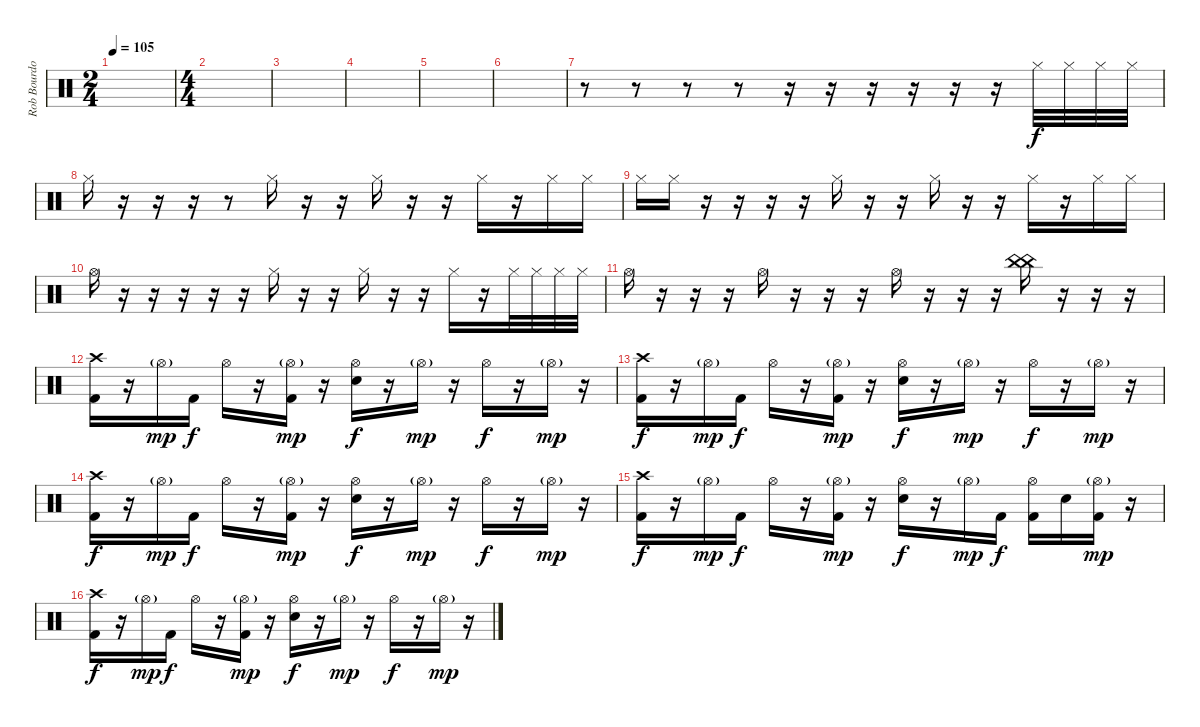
\track ("Rob Bourdon (Drums)" "Rob Bourdo") {instrument percussion}
\staff {score}
\articulation defaults
\ts (2 4)
\tempo 105
\clef neutral
\ks c
|
\ts (4 4)
|
|
|
|
|
r.8 r.8 r.8 r.8 r.16 r.16 r.16 r.16 r.16 r.16 "Hi-Hat (closed)".32 "Hi-Hat (closed)".32 "Hi-Hat (closed)".32 "Hi-Hat (closed)".32 |
"Hi-Hat (closed)".16 r.16 r.16 r.16 r.8 "Hi-Hat (closed)".16 r.16 r.16 "Hi-Hat (closed)".16 r.16 r.16 "Hi-Hat (closed)".16 r.16 "Hi-Hat (closed)".16 "Hi-Hat (closed)".16 |
"Hi-Hat (closed)".16 "Hi-Hat (closed)".16 r.16 r.16 r.16 r.16 "Hi-Hat (closed)".16 r.16 r.16 "Hi-Hat (closed)".16 r.16 r.16 "Hi-Hat (closed)".16 r.16 "Hi-Hat (closed)".16 "Hi-Hat (closed)".16 |
"Hi-Hat (open)".16 r.16 r.16 r.16 r.16 r.16 "Hi-Hat (closed)".16 r.16 r.16 "Hi-Hat (closed)".16 r.16 r.16 "Hi-Hat (closed)".16 r.16 "Hi-Hat (closed)".32 "Hi-Hat (closed)".32 "Hi-Hat (closed)".32 "Hi-Hat (closed)".32 |
"Hi-Hat (open)".16 r.16 r.16 r.16 "Hi-Hat (open)".16 r.16 r.16 r.16 "Hi-Hat (open)".16 r.16 r.16 r.16 ("China (hit)" "China (hit)").16 r.16 r.16 r.16 |
("Crash high (hit)" "Kick (hit) 2").16 r.16 "Hi-Hat (open)"{g}.16{dy mp} "Kick (hit) 2".16{dy f} "Hi-Hat (open)".16 r.16 ("Hi-Hat (open)"{g} "Kick (hit) 2").16{dy mp} r.16 ("Hi-Hat (open)" "Electric Snare (hit)").16{dy f} r.16 "Hi-Hat (open)"{g}.16{dy mp} r.16 "Hi-Hat (open)".16{dy f} r.16 "Hi-Hat (open)"{g}.16{dy mp} r.16 |
("Crash high (hit)" "Kick (hit) 2").16{dy f} r.16 "Hi-Hat (open)"{g}.16{dy mp} "Kick (hit) 2".16{dy f} "Hi-Hat (open)".16 r.16 ("Hi-Hat (open)"{g} "Kick (hit) 2").16{dy mp} r.16 ("Hi-Hat (open)" "Electric Snare (hit)").16{dy f} r.16 "Hi-Hat (open)"{g}.16{dy mp} r.16 "Hi-Hat (open)".16{dy f} r.16 "Hi-Hat (open)"{g}.16{dy mp} r.16 |
("Crash high (hit)" "Kick (hit) 2").16{dy f} r.16 "Hi-Hat (open)"{g}.16{dy mp} "Kick (hit) 2".16{dy f} "Hi-Hat (open)".16 r.16 ("Hi-Hat (open)"{g} "Kick (hit) 2").16{dy mp} r.16 ("Hi-Hat (open)" "Electric Snare (hit)").16{dy f} r.16 "Hi-Hat (open)"{g}.16{dy mp} r.16 "Hi-Hat (open)".16{dy f} r.16 "Hi-Hat (open)"{g}.16{dy mp} r.16 |
("Crash high (hit)" "Kick (hit) 2").16{dy f} r.16 "Hi-Hat (open)"{g}.16{dy mp} "Kick (hit) 2".16{dy f} "Hi-Hat (open)".16 r.16 ("Hi-Hat (open)"{g} "Kick (hit) 2").16{dy mp} r.16 ("Hi-Hat (open)" "Electric Snare (hit)").16{dy f} r.16 "Hi-Hat (open)"{g}.16{dy mp} "Kick (hit) 2".16{dy f} ("Hi-Hat (open)" "Kick (hit) 2").16 "Electric Snare (hit)".16 ("Hi-Hat (open)"{g} "Kick (hit) 2").16{dy mp} r.16 |
("Crash high (hit)" "Kick (hit) 2").16{dy f} r.16 "Hi-Hat (open)"{g}.16{dy mp} "Kick (hit) 2".16{dy f} "Hi-Hat (open)".16 r.16 ("Hi-Hat (open)"{g} "Kick (hit) 2").16{dy mp} r.16 ("Hi-Hat (open)" "Electric Snare (hit)").16{dy f} r.16 "Hi-Hat (open)"{g}.16{dy mp} r.16 "Hi-Hat (open)".16{dy f} r.16 "Hi-Hat (open)"{g}.16{dy mp} r.16
